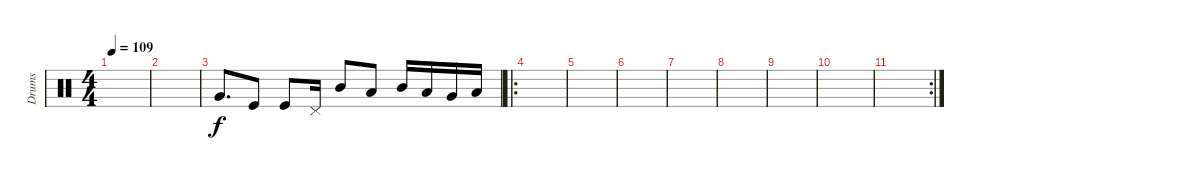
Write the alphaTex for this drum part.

\track ("Drums" "Drums") {instrument percussion}
\staff {score}
\articulation defaults
\ts (4 4)
\tempo 109
\clef neutral
\ks c
|
|
"Very Low Tom (hit)".8{d} "Kick (hit)".8 "Kick (hit)".8 "Pedal Hi-Hat (hit)".16 "Mid Tom (hit)".8 "Low Tom (hit)".8 "Mid Tom (hit)".16 "Low Tom (hit)".16 "Very Low Tom (hit)".16 "Low Floor Tom (hit)".16 |
\ro
|
|
|
|
|
|
|
\rc 2
